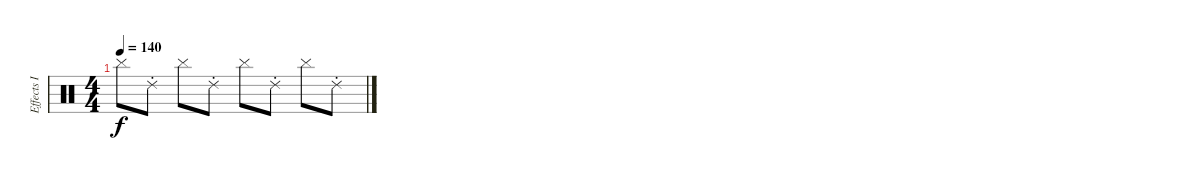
\track ("Effects I" "Effects I") {instrument percussion}
\staff {score}
\articulation defaults
\ts (4 4)
\tempo 140
\clef neutral
\ks c "Cymbal (hit)".8{dy f} "Ride (choke) 2".8 "Cymbal (hit)".8 "Ride (choke) 2".8 "Cymbal (hit)".8 "Ride (choke) 2".8 "Cymbal (hit)".8 "Ride (choke) 2".8
